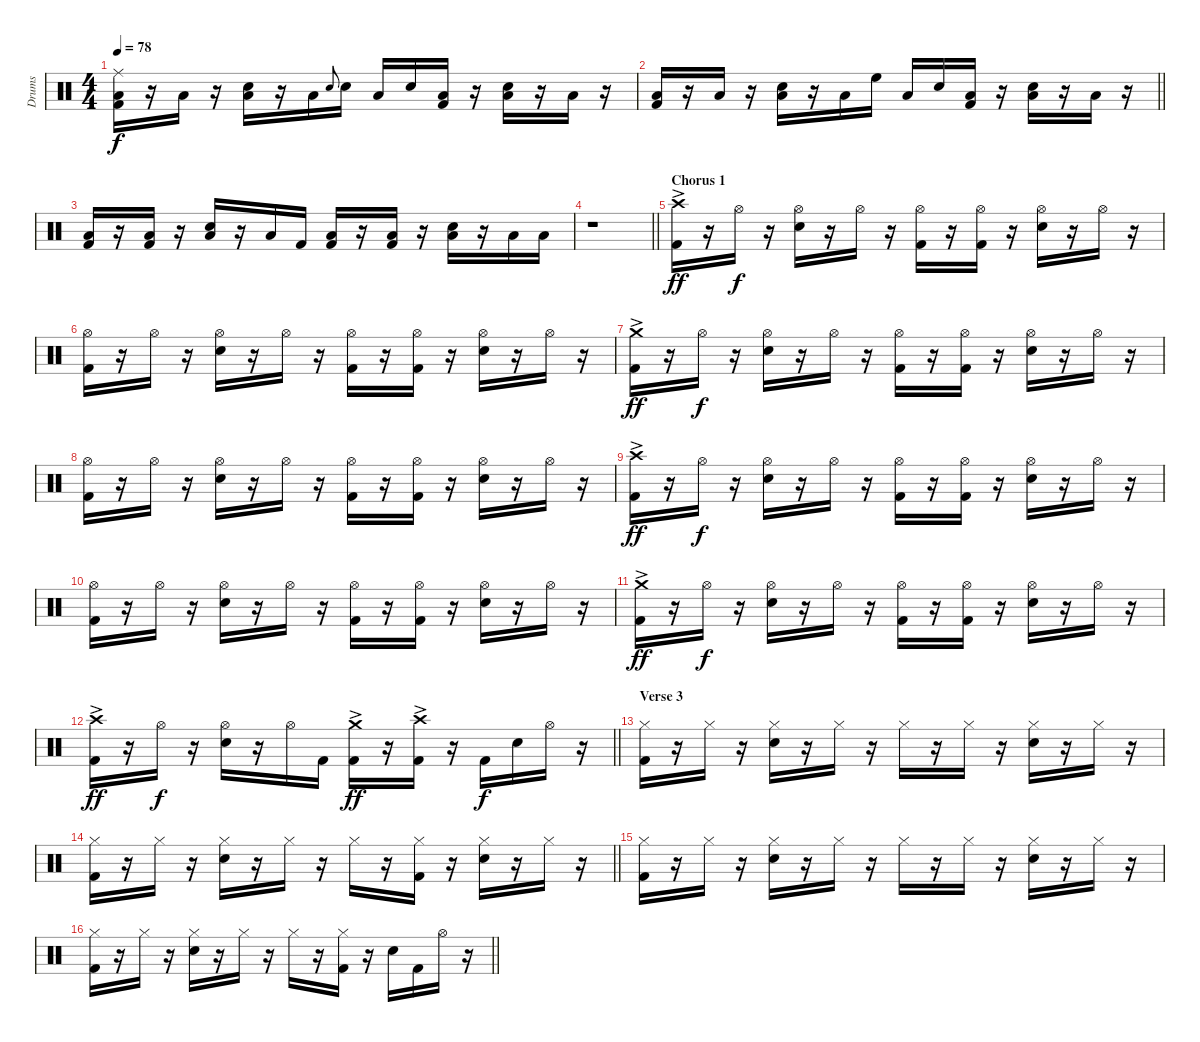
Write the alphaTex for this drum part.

\track ("Drums" "Drums") {instrument percussion}
\staff {score}
\articulation defaults
\ts (4 4)
\tempo 78
\clef neutral
\ks c
("Ride (middle)" "Low Floor Tom (hit)" "Kick (hit) 2").16{dy f} r.16 "Low Floor Tom (hit)".16 r.16 ("Snare (hit) 2" "Low Floor Tom (hit)").16 r.16 "Low Floor Tom (hit)".16 "Snare (hit) 2"{x}.8{gr onbeat} "Snare (hit) 2".16 "Low Floor Tom (hit)".16 "Snare (hit) 2".16 ("Low Floor Tom (hit)" "Kick (hit) 2").16 r.16 ("Snare (hit) 2" "Low Floor Tom (hit)").16 r.16 "Low Floor Tom (hit)".16 r.16 |
\barLineRight lightlight
("Low Floor Tom (hit)" "Kick (hit) 2").16 r.16 "Low Floor Tom (hit)".16 r.16 ("Snare (hit) 2" "Low Floor Tom (hit)").16 r.16 "Low Floor Tom (hit)".16 "High Floor Tom (hit)".16 "Low Floor Tom (hit)".16 "Snare (hit) 2".16 ("Low Floor Tom (hit)" "Kick (hit) 2").16 r.16 ("Snare (hit) 2" "Low Floor Tom (hit)").16 r.16 "Low Floor Tom (hit)".16 r.16 |
("Low Floor Tom (hit)" "Kick (hit) 2").16 r.16 ("Low Floor Tom (hit)" "Kick (hit) 2").16 r.16 ("Snare (hit) 2" "Low Floor Tom (hit)").16 r.16 "Low Floor Tom (hit)".16 "Kick (hit) 2".16 ("Low Floor Tom (hit)" "Kick (hit) 2").16 r.16 ("Low Floor Tom (hit)" "Kick (hit) 2").16 r.16 ("Snare (hit) 2" "Low Floor Tom (hit)").16 r.16 "Low Floor Tom (hit)".16 "Low Floor Tom (hit)".16 |
\barLineRight lightlight
r.1 |
\section ("" "Chorus 1")
("Crash high (hit)"{ac} "Kick (hit) 2").16{dy ff} r.16 "Hi-Hat (open)".16{dy f} r.16 ("Hi-Hat (open)" "Snare (hit) 2").16 r.16 "Hi-Hat (open)".16 r.16 ("Hi-Hat (open)" "Kick (hit) 2").16 r.16 ("Hi-Hat (open)" "Kick (hit) 2").16 r.16 ("Hi-Hat (open)" "Snare (hit) 2").16 r.16 "Hi-Hat (open)".16 r.16 |
("Hi-Hat (open)" "Kick (hit) 2").16 r.16 "Hi-Hat (open)".16 r.16 ("Hi-Hat (open)" "Snare (hit) 2").16 r.16 "Hi-Hat (open)".16 r.16 ("Hi-Hat (open)" "Kick (hit) 2").16 r.16 ("Hi-Hat (open)" "Kick (hit) 2").16 r.16 ("Hi-Hat (open)" "Snare (hit) 2").16 r.16 "Hi-Hat (open)".16 r.16 |
("Crash medium (hit)"{ac} "Kick (hit) 2").16{dy ff} r.16 "Hi-Hat (open)".16{dy f} r.16 ("Hi-Hat (open)" "Snare (hit) 2").16 r.16 "Hi-Hat (open)".16 r.16 ("Hi-Hat (open)" "Kick (hit) 2").16 r.16 ("Hi-Hat (open)" "Kick (hit) 2").16 r.16 ("Hi-Hat (open)" "Snare (hit) 2").16 r.16 "Hi-Hat (open)".16 r.16 |
("Hi-Hat (open)" "Kick (hit) 2").16 r.16 "Hi-Hat (open)".16 r.16 ("Hi-Hat (open)" "Snare (hit) 2").16 r.16 "Hi-Hat (open)".16 r.16 ("Hi-Hat (open)" "Kick (hit) 2").16 r.16 ("Hi-Hat (open)" "Kick (hit) 2").16 r.16 ("Hi-Hat (open)" "Snare (hit) 2").16 r.16 "Hi-Hat (open)".16 r.16 |
("Crash high (hit)"{ac} "Kick (hit) 2").16{dy ff} r.16 "Hi-Hat (open)".16{dy f} r.16 ("Hi-Hat (open)" "Snare (hit) 2").16 r.16 "Hi-Hat (open)".16 r.16 ("Hi-Hat (open)" "Kick (hit) 2").16 r.16 ("Hi-Hat (open)" "Kick (hit) 2").16 r.16 ("Hi-Hat (open)" "Snare (hit) 2").16 r.16 "Hi-Hat (open)".16 r.16 |
("Hi-Hat (open)" "Kick (hit) 2").16 r.16 "Hi-Hat (open)".16 r.16 ("Hi-Hat (open)" "Snare (hit) 2").16 r.16 "Hi-Hat (open)".16 r.16 ("Hi-Hat (open)" "Kick (hit) 2").16 r.16 ("Hi-Hat (open)" "Kick (hit) 2").16 r.16 ("Hi-Hat (open)" "Snare (hit) 2").16 r.16 "Hi-Hat (open)".16 r.16 |
("Crash medium (hit)"{ac} "Kick (hit) 2").16{dy ff} r.16 "Hi-Hat (open)".16{dy f} r.16 ("Hi-Hat (open)" "Snare (hit) 2").16 r.16 "Hi-Hat (open)".16 r.16 ("Hi-Hat (open)" "Kick (hit) 2").16 r.16 ("Hi-Hat (open)" "Kick (hit) 2").16 r.16 ("Hi-Hat (open)" "Snare (hit) 2").16 r.16 "Hi-Hat (open)".16 r.16 |
\barLineRight lightlight
("Crash high (hit)"{ac} "Kick (hit) 2").16{dy ff} r.16 "Hi-Hat (open)".16{dy f} r.16 ("Hi-Hat (open)" "Snare (hit) 2").16 r.16 "Hi-Hat (open)".16 "Kick (hit) 2".16 ("Crash medium (hit)"{ac} "Kick (hit) 2").16{dy ff} r.16 ("Crash high (hit)"{ac} "Kick (hit) 2").16 r.16 "Kick (hit) 2".16{dy f} "Snare (hit) 2".16 "Hi-Hat (open)".16 r.16 |
\section ("" "Verse 3")
("Hi-Hat (closed)" "Kick (hit) 2").16 r.16 "Hi-Hat (closed)".16 r.16 ("Hi-Hat (closed)" "Snare (hit) 2").16 r.16 "Hi-Hat (closed)".16 r.16 "Hi-Hat (closed)".16 r.16 "Hi-Hat (closed)".16 r.16 ("Hi-Hat (closed)" "Snare (hit) 2").16 r.16 "Hi-Hat (closed)".16 r.16 |
\barLineRight lightlight
("Hi-Hat (closed)" "Kick (hit) 2").16 r.16 "Hi-Hat (closed)".16 r.16 ("Hi-Hat (closed)" "Snare (hit) 2").16 r.16 "Hi-Hat (closed)".16 r.16 "Hi-Hat (closed)".16 r.16 ("Hi-Hat (closed)" "Kick (hit) 2").16 r.16 ("Hi-Hat (closed)" "Snare (hit) 2").16 r.16 "Hi-Hat (closed)".16 r.16 |
("Hi-Hat (closed)" "Kick (hit) 2").16 r.16 "Hi-Hat (closed)".16 r.16 ("Hi-Hat (closed)" "Snare (hit) 2").16 r.16 "Hi-Hat (closed)".16 r.16 "Hi-Hat (closed)".16 r.16 "Hi-Hat (closed)".16 r.16 ("Hi-Hat (closed)" "Snare (hit) 2").16 r.16 "Hi-Hat (closed)".16 r.16 |
\barLineRight lightlight
("Hi-Hat (closed)" "Kick (hit) 2").16 r.16 "Hi-Hat (closed)".16 r.16 ("Hi-Hat (closed)" "Snare (hit) 2").16 r.16 "Hi-Hat (closed)".16 r.16 "Hi-Hat (closed)".16 r.16 ("Hi-Hat (closed)" "Kick (hit) 2").16 r.16 "Snare (hit) 2".16 "Kick (hit) 2".16 "Hi-Hat (open)".16 r.16
